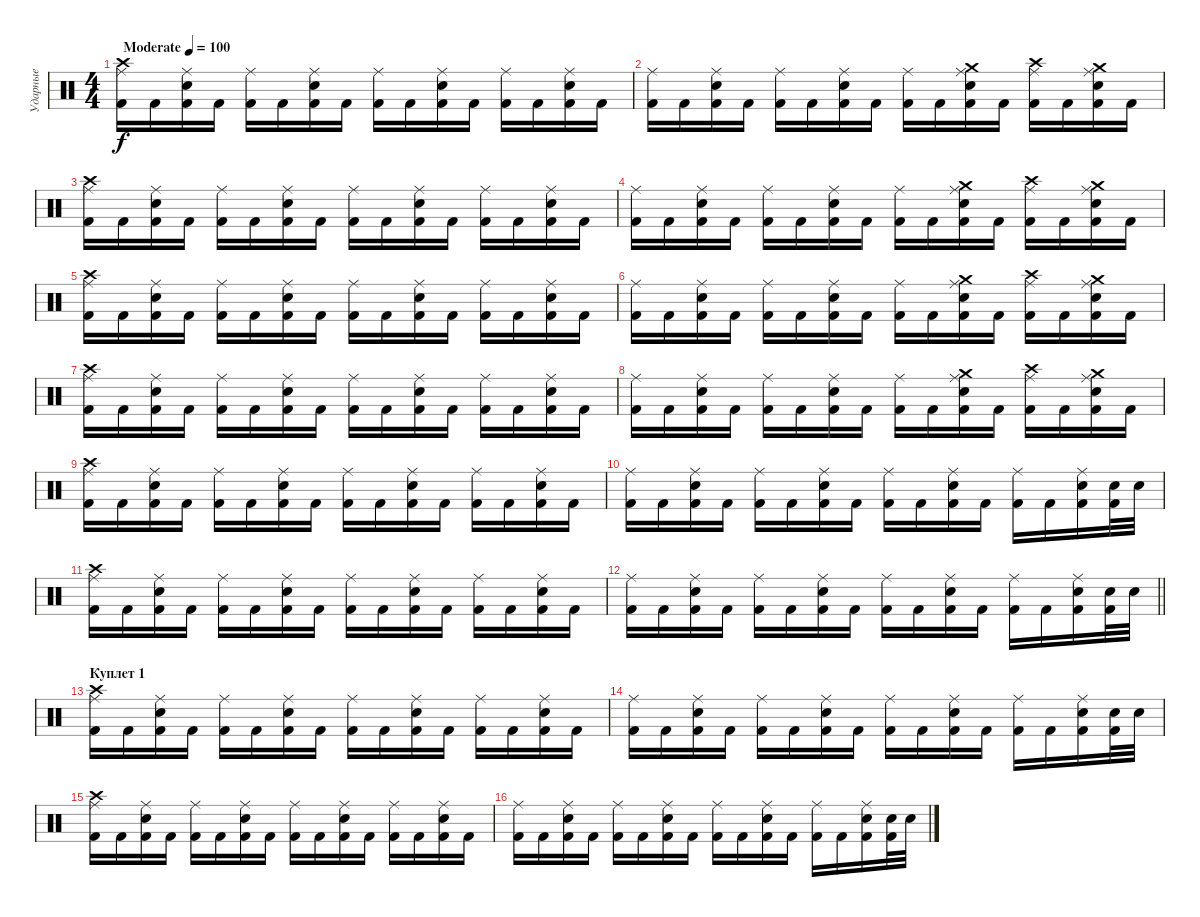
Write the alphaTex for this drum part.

\track ("Ударные" "Ударные") {instrument percussion}
\staff {score}
\articulation defaults
\ts (4 4)
\tempo (100 "Moderate")
\clef neutral
\ks c
("Kick (hit) 2" "Crash high (hit)" "Ride (middle)").16{dy f} "Kick (hit) 2".16 ("Kick (hit) 2" "Ride (middle)" "Snare (hit) 2").16 "Kick (hit) 2".16 ("Kick (hit) 2" "Ride (middle)").16 "Kick (hit) 2".16 ("Kick (hit) 2" "Ride (middle)" "Snare (hit) 2").16 "Kick (hit) 2".16 ("Kick (hit) 2" "Ride (middle)").16 "Kick (hit) 2".16 ("Kick (hit) 2" "Ride (middle)" "Snare (hit) 2").16 "Kick (hit) 2".16 ("Kick (hit) 2" "Ride (middle)").16 "Kick (hit) 2".16 ("Kick (hit) 2" "Ride (middle)" "Snare (hit) 2").16 "Kick (hit) 2".16 |
("Kick (hit) 2" "Ride (middle)").16 "Kick (hit) 2".16 ("Kick (hit) 2" "Ride (middle)" "Snare (hit) 2").16 "Kick (hit) 2".16 ("Kick (hit) 2" "Ride (middle)").16 "Kick (hit) 2".16 ("Kick (hit) 2" "Ride (middle)" "Snare (hit) 2").16 "Kick (hit) 2".16 ("Kick (hit) 2" "Ride (middle)").16 "Kick (hit) 2".16 ("Kick (hit) 2" "Crash medium (hit)" "Ride (middle)" "Snare (hit) 2").16 "Kick (hit) 2".16 ("Kick (hit) 2" "Crash high (hit)" "Ride (middle)").16 "Kick (hit) 2".16 ("Kick (hit) 2" "Crash medium (hit)" "Ride (middle)" "Snare (hit) 2").16 "Kick (hit) 2".16 |
("Kick (hit) 2" "Crash high (hit)" "Ride (middle)").16 "Kick (hit) 2".16 ("Kick (hit) 2" "Ride (middle)" "Snare (hit) 2").16 "Kick (hit) 2".16 ("Kick (hit) 2" "Ride (middle)").16 "Kick (hit) 2".16 ("Kick (hit) 2" "Ride (middle)" "Snare (hit) 2").16 "Kick (hit) 2".16 ("Kick (hit) 2" "Ride (middle)").16 "Kick (hit) 2".16 ("Kick (hit) 2" "Ride (middle)" "Snare (hit) 2").16 "Kick (hit) 2".16 ("Kick (hit) 2" "Ride (middle)").16 "Kick (hit) 2".16 ("Kick (hit) 2" "Ride (middle)" "Snare (hit) 2").16 "Kick (hit) 2".16 |
("Kick (hit) 2" "Ride (middle)").16 "Kick (hit) 2".16 ("Kick (hit) 2" "Ride (middle)" "Snare (hit) 2").16 "Kick (hit) 2".16 ("Kick (hit) 2" "Ride (middle)").16 "Kick (hit) 2".16 ("Kick (hit) 2" "Ride (middle)" "Snare (hit) 2").16 "Kick (hit) 2".16 ("Kick (hit) 2" "Ride (middle)").16 "Kick (hit) 2".16 ("Kick (hit) 2" "Crash medium (hit)" "Ride (middle)" "Snare (hit) 2").16 "Kick (hit) 2".16 ("Kick (hit) 2" "Crash high (hit)" "Ride (middle)").16 "Kick (hit) 2".16 ("Kick (hit) 2" "Crash medium (hit)" "Ride (middle)" "Snare (hit) 2").16 "Kick (hit) 2".16 |
("Kick (hit) 2" "Crash high (hit)" "Ride (middle)").16 "Kick (hit) 2".16 ("Kick (hit) 2" "Ride (middle)" "Snare (hit) 2").16 "Kick (hit) 2".16 ("Kick (hit) 2" "Ride (middle)").16 "Kick (hit) 2".16 ("Kick (hit) 2" "Ride (middle)" "Snare (hit) 2").16 "Kick (hit) 2".16 ("Kick (hit) 2" "Ride (middle)").16 "Kick (hit) 2".16 ("Kick (hit) 2" "Ride (middle)" "Snare (hit) 2").16 "Kick (hit) 2".16 ("Kick (hit) 2" "Ride (middle)").16 "Kick (hit) 2".16 ("Kick (hit) 2" "Ride (middle)" "Snare (hit) 2").16 "Kick (hit) 2".16 |
("Kick (hit) 2" "Ride (middle)").16 "Kick (hit) 2".16 ("Kick (hit) 2" "Ride (middle)" "Snare (hit) 2").16 "Kick (hit) 2".16 ("Kick (hit) 2" "Ride (middle)").16 "Kick (hit) 2".16 ("Kick (hit) 2" "Ride (middle)" "Snare (hit) 2").16 "Kick (hit) 2".16 ("Kick (hit) 2" "Ride (middle)").16 "Kick (hit) 2".16 ("Kick (hit) 2" "Crash medium (hit)" "Ride (middle)" "Snare (hit) 2").16 "Kick (hit) 2".16 ("Kick (hit) 2" "Crash high (hit)" "Ride (middle)").16 "Kick (hit) 2".16 ("Kick (hit) 2" "Crash medium (hit)" "Ride (middle)" "Snare (hit) 2").16 "Kick (hit) 2".16 |
("Kick (hit) 2" "Crash high (hit)" "Ride (middle)").16 "Kick (hit) 2".16 ("Kick (hit) 2" "Ride (middle)" "Snare (hit) 2").16 "Kick (hit) 2".16 ("Kick (hit) 2" "Ride (middle)").16 "Kick (hit) 2".16 ("Kick (hit) 2" "Ride (middle)" "Snare (hit) 2").16 "Kick (hit) 2".16 ("Kick (hit) 2" "Ride (middle)").16 "Kick (hit) 2".16 ("Kick (hit) 2" "Ride (middle)" "Snare (hit) 2").16 "Kick (hit) 2".16 ("Kick (hit) 2" "Ride (middle)").16 "Kick (hit) 2".16 ("Kick (hit) 2" "Ride (middle)" "Snare (hit) 2").16 "Kick (hit) 2".16 |
("Kick (hit) 2" "Ride (middle)").16 "Kick (hit) 2".16 ("Kick (hit) 2" "Ride (middle)" "Snare (hit) 2").16 "Kick (hit) 2".16 ("Kick (hit) 2" "Ride (middle)").16 "Kick (hit) 2".16 ("Kick (hit) 2" "Ride (middle)" "Snare (hit) 2").16 "Kick (hit) 2".16 ("Kick (hit) 2" "Ride (middle)").16 "Kick (hit) 2".16 ("Kick (hit) 2" "Crash medium (hit)" "Ride (middle)" "Snare (hit) 2").16 "Kick (hit) 2".16 ("Kick (hit) 2" "Crash high (hit)" "Ride (middle)").16 "Kick (hit) 2".16 ("Kick (hit) 2" "Crash medium (hit)" "Ride (middle)" "Snare (hit) 2").16 "Kick (hit) 2".16 |
("Kick (hit) 2" "Crash high (hit)" "Ride (middle)").16 "Kick (hit) 2".16 ("Kick (hit) 2" "Ride (middle)" "Snare (hit) 2").16 "Kick (hit) 2".16 ("Kick (hit) 2" "Ride (middle)").16 "Kick (hit) 2".16 ("Kick (hit) 2" "Ride (middle)" "Snare (hit) 2").16 "Kick (hit) 2".16 ("Kick (hit) 2" "Ride (middle)").16 "Kick (hit) 2".16 ("Kick (hit) 2" "Ride (middle)" "Snare (hit) 2").16 "Kick (hit) 2".16 ("Kick (hit) 2" "Ride (middle)").16 "Kick (hit) 2".16 ("Kick (hit) 2" "Ride (middle)" "Snare (hit) 2").16 "Kick (hit) 2".16 |
("Kick (hit) 2" "Ride (middle)").16 "Kick (hit) 2".16 ("Kick (hit) 2" "Ride (middle)" "Snare (hit) 2").16 "Kick (hit) 2".16 ("Kick (hit) 2" "Ride (middle)").16 "Kick (hit) 2".16 ("Kick (hit) 2" "Ride (middle)" "Snare (hit) 2").16 "Kick (hit) 2".16 ("Kick (hit) 2" "Ride (middle)").16 "Kick (hit) 2".16 ("Kick (hit) 2" "Ride (middle)" "Snare (hit) 2").16 "Kick (hit) 2".16 ("Kick (hit) 2" "Ride (middle)").16 "Kick (hit) 2".16 ("Kick (hit) 2" "Ride (middle)" "Snare (hit) 2").16 ("Kick (hit) 2" "Snare (hit) 2").32 "Snare (hit) 2".32 |
("Kick (hit) 2" "Crash high (hit)" "Ride (middle)").16 "Kick (hit) 2".16 ("Kick (hit) 2" "Ride (middle)" "Snare (hit) 2").16 "Kick (hit) 2".16 ("Kick (hit) 2" "Ride (middle)").16 "Kick (hit) 2".16 ("Kick (hit) 2" "Ride (middle)" "Snare (hit) 2").16 "Kick (hit) 2".16 ("Kick (hit) 2" "Ride (middle)").16 "Kick (hit) 2".16 ("Kick (hit) 2" "Ride (middle)" "Snare (hit) 2").16 "Kick (hit) 2".16 ("Kick (hit) 2" "Ride (middle)").16 "Kick (hit) 2".16 ("Kick (hit) 2" "Ride (middle)" "Snare (hit) 2").16 "Kick (hit) 2".16 |
\barLineRight lightlight
("Kick (hit) 2" "Ride (middle)").16 "Kick (hit) 2".16 ("Kick (hit) 2" "Ride (middle)" "Snare (hit) 2").16 "Kick (hit) 2".16 ("Kick (hit) 2" "Ride (middle)").16 "Kick (hit) 2".16 ("Kick (hit) 2" "Ride (middle)" "Snare (hit) 2").16 "Kick (hit) 2".16 ("Kick (hit) 2" "Ride (middle)").16 "Kick (hit) 2".16 ("Kick (hit) 2" "Ride (middle)" "Snare (hit) 2").16 "Kick (hit) 2".16 ("Kick (hit) 2" "Ride (middle)").16 "Kick (hit) 2".16 ("Kick (hit) 2" "Ride (middle)" "Snare (hit) 2").16 ("Kick (hit) 2" "Snare (hit) 2").32 "Snare (hit) 2".32 |
\section ("" "Куплет 1")
("Kick (hit) 2" "Crash high (hit)" "Ride (middle)").16 "Kick (hit) 2".16 ("Kick (hit) 2" "Ride (middle)" "Snare (hit) 2").16 "Kick (hit) 2".16 ("Kick (hit) 2" "Ride (middle)").16 "Kick (hit) 2".16 ("Kick (hit) 2" "Ride (middle)" "Snare (hit) 2").16 "Kick (hit) 2".16 ("Kick (hit) 2" "Ride (middle)").16 "Kick (hit) 2".16 ("Kick (hit) 2" "Ride (middle)" "Snare (hit) 2").16 "Kick (hit) 2".16 ("Kick (hit) 2" "Ride (middle)").16 "Kick (hit) 2".16 ("Kick (hit) 2" "Ride (middle)" "Snare (hit) 2").16 "Kick (hit) 2".16 |
("Kick (hit) 2" "Ride (middle)").16 "Kick (hit) 2".16 ("Kick (hit) 2" "Ride (middle)" "Snare (hit) 2").16 "Kick (hit) 2".16 ("Kick (hit) 2" "Ride (middle)").16 "Kick (hit) 2".16 ("Kick (hit) 2" "Ride (middle)" "Snare (hit) 2").16 "Kick (hit) 2".16 ("Kick (hit) 2" "Ride (middle)").16 "Kick (hit) 2".16 ("Kick (hit) 2" "Ride (middle)" "Snare (hit) 2").16 "Kick (hit) 2".16 ("Kick (hit) 2" "Ride (middle)").16 "Kick (hit) 2".16 ("Kick (hit) 2" "Ride (middle)" "Snare (hit) 2").16 ("Kick (hit) 2" "Snare (hit) 2").32 "Snare (hit) 2".32 |
("Kick (hit) 2" "Crash high (hit)" "Ride (middle)").16 "Kick (hit) 2".16 ("Kick (hit) 2" "Ride (middle)" "Snare (hit) 2").16 "Kick (hit) 2".16 ("Kick (hit) 2" "Ride (middle)").16 "Kick (hit) 2".16 ("Kick (hit) 2" "Ride (middle)" "Snare (hit) 2").16 "Kick (hit) 2".16 ("Kick (hit) 2" "Ride (middle)").16 "Kick (hit) 2".16 ("Kick (hit) 2" "Ride (middle)" "Snare (hit) 2").16 "Kick (hit) 2".16 ("Kick (hit) 2" "Ride (middle)").16 "Kick (hit) 2".16 ("Kick (hit) 2" "Ride (middle)" "Snare (hit) 2").16 "Kick (hit) 2".16 |
("Kick (hit) 2" "Ride (middle)").16 "Kick (hit) 2".16 ("Kick (hit) 2" "Ride (middle)" "Snare (hit) 2").16 "Kick (hit) 2".16 ("Kick (hit) 2" "Ride (middle)").16 "Kick (hit) 2".16 ("Kick (hit) 2" "Ride (middle)" "Snare (hit) 2").16 "Kick (hit) 2".16 ("Kick (hit) 2" "Ride (middle)").16 "Kick (hit) 2".16 ("Kick (hit) 2" "Ride (middle)" "Snare (hit) 2").16 "Kick (hit) 2".16 ("Kick (hit) 2" "Ride (middle)").16 "Kick (hit) 2".16 ("Kick (hit) 2" "Ride (middle)" "Snare (hit) 2").16 ("Kick (hit) 2" "Snare (hit) 2").32 "Snare (hit) 2".32
